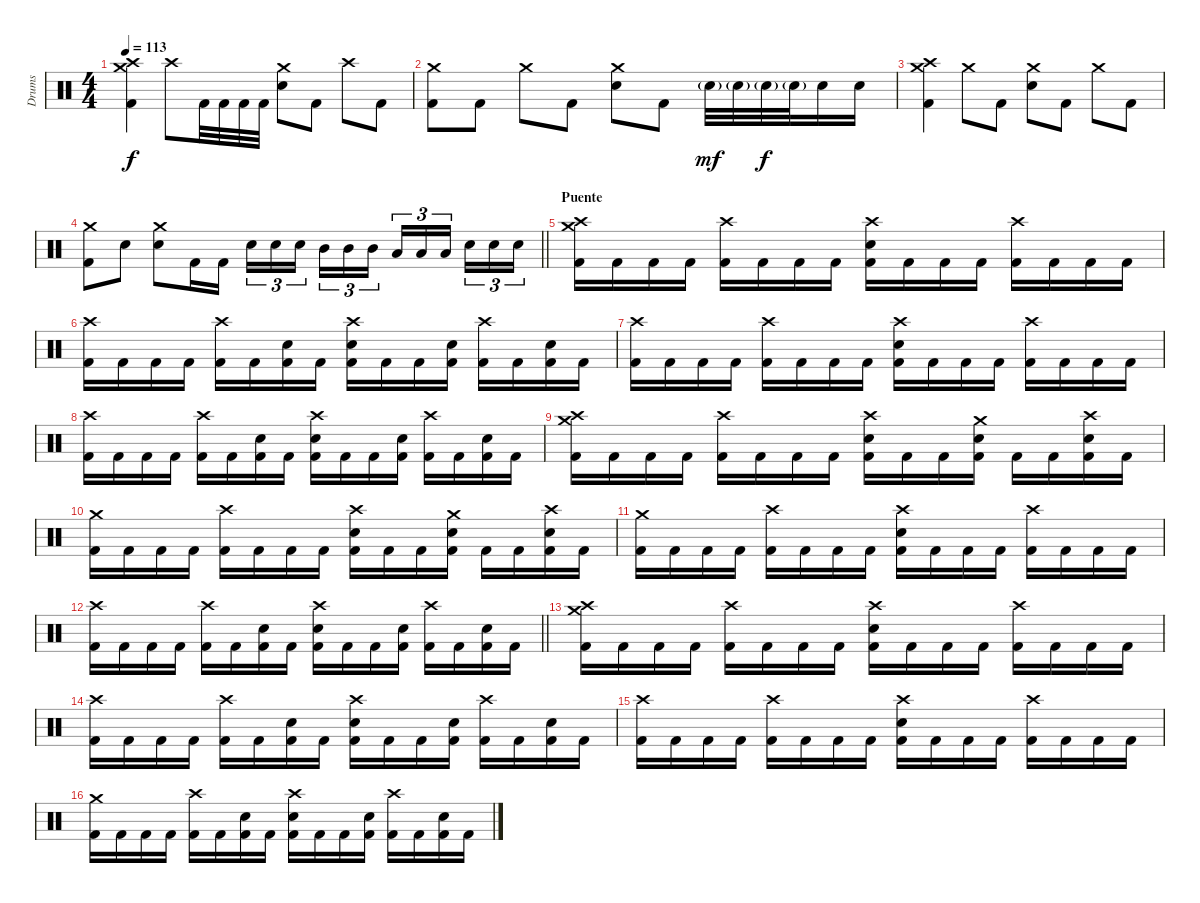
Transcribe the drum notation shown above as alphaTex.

\track ("Drums" "Drums") {instrument percussion}
\staff {score}
\articulation defaults
\ts (4 4)
\tempo 113
\clef neutral
\ks c
("Crash medium (hit)" "Crash high (hit)" "Kick (hit) 2").4{dy f} "Crash high (hit)".8 "Kick (hit) 2".32 "Kick (hit) 2".32 "Kick (hit) 2".32 "Kick (hit) 2".32 ("Crash medium (hit)" "Electric Snare (hit)").8 "Kick (hit) 2".8 "Crash high (hit)".8 "Kick (hit) 2".8 |
("Crash medium (hit)" "Kick (hit) 2").8 "Kick (hit) 2".8 "Crash medium (hit)".8 "Kick (hit) 2".8 ("Crash medium (hit)" "Electric Snare (hit)").8 "Kick (hit) 2".8 "Electric Snare (hit)"{g}.32{dy mf} "Electric Snare (hit)"{g}.32 "Electric Snare (hit)"{g}.32{dy f} "Electric Snare (hit)"{g}.32 "Electric Snare (hit)".16 "Electric Snare (hit)".16 |
("Crash medium (hit)" "Crash high (hit)" "Kick (hit) 2").4 "Crash medium (hit)".8 "Kick (hit) 2".8 ("Crash medium (hit)" "Electric Snare (hit)").8 "Kick (hit) 2".8 "Crash medium (hit)".8 "Kick (hit) 2".8 |
\barLineRight lightlight
("Crash medium (hit)" "Kick (hit) 2").8 "Electric Snare (hit)".8 ("Crash medium (hit)" "Electric Snare (hit)").8 "Kick (hit) 2".16 "Kick (hit) 2".16 "Electric Snare (hit)".16{tu (3 2)} "Electric Snare (hit)".16{tu (3 2)} "Electric Snare (hit)".16{tu (3 2) beam splitsecondary} "Mid Tom (hit)".16{tu (3 2)} "Mid Tom (hit)".16{tu (3 2)} "Mid Tom (hit)".16{tu (3 2)} "Low Tom (hit)".16{tu (3 2)} "Low Tom (hit)".16{tu (3 2)} "Low Tom (hit)".16{tu (3 2) beam splitsecondary} "Electric Snare (hit)".16{tu (3 2)} "Electric Snare (hit)".16{tu (3 2)} "Electric Snare (hit)".16{tu (3 2)} |
\section ("" "Puente")
("Crash medium (hit)" "Crash high (hit)" "Kick (hit) 2").16 "Kick (hit) 2".16 "Kick (hit) 2".16 "Kick (hit) 2".16 ("Crash high (hit)" "Kick (hit) 2").16 "Kick (hit) 2".16 "Kick (hit) 2".16 "Kick (hit) 2".16 ("Crash high (hit)" "Electric Snare (hit)" "Kick (hit) 2").16 "Kick (hit) 2".16 "Kick (hit) 2".16 "Kick (hit) 2".16 ("Crash high (hit)" "Kick (hit) 2").16 "Kick (hit) 2".16 "Kick (hit) 2".16 "Kick (hit) 2".16 |
("Crash high (hit)" "Kick (hit) 2").16 "Kick (hit) 2".16 "Kick (hit) 2".16 "Kick (hit) 2".16 ("Crash high (hit)" "Kick (hit) 2").16 "Kick (hit) 2".16 ("Electric Snare (hit)" "Kick (hit) 2").16 "Kick (hit) 2".16 ("Crash high (hit)" "Electric Snare (hit)" "Kick (hit) 2").16 "Kick (hit) 2".16 "Kick (hit) 2".16 ("Electric Snare (hit)" "Kick (hit) 2").16 ("Crash high (hit)" "Kick (hit) 2").16 "Kick (hit) 2".16 ("Electric Snare (hit)" "Kick (hit) 2").16 "Kick (hit) 2".16 |
("Crash high (hit)" "Kick (hit) 2").16 "Kick (hit) 2".16 "Kick (hit) 2".16 "Kick (hit) 2".16 ("Crash high (hit)" "Kick (hit) 2").16 "Kick (hit) 2".16 "Kick (hit) 2".16 "Kick (hit) 2".16 ("Crash high (hit)" "Electric Snare (hit)" "Kick (hit) 2").16 "Kick (hit) 2".16 "Kick (hit) 2".16 "Kick (hit) 2".16 ("Crash high (hit)" "Kick (hit) 2").16 "Kick (hit) 2".16 "Kick (hit) 2".16 "Kick (hit) 2".16 |
("Crash high (hit)" "Kick (hit) 2").16 "Kick (hit) 2".16 "Kick (hit) 2".16 "Kick (hit) 2".16 ("Crash high (hit)" "Kick (hit) 2").16 "Kick (hit) 2".16 ("Electric Snare (hit)" "Kick (hit) 2").16 "Kick (hit) 2".16 ("Crash high (hit)" "Electric Snare (hit)" "Kick (hit) 2").16 "Kick (hit) 2".16 "Kick (hit) 2".16 ("Electric Snare (hit)" "Kick (hit) 2").16 ("Crash high (hit)" "Kick (hit) 2").16 "Kick (hit) 2".16 ("Electric Snare (hit)" "Kick (hit) 2").16 "Kick (hit) 2".16 |
("Crash medium (hit)" "Crash high (hit)" "Kick (hit) 2").16 "Kick (hit) 2".16 "Kick (hit) 2".16 "Kick (hit) 2".16 ("Crash high (hit)" "Kick (hit) 2").16 "Kick (hit) 2".16 "Kick (hit) 2".16 "Kick (hit) 2".16 ("Crash high (hit)" "Electric Snare (hit)" "Kick (hit) 2").16 "Kick (hit) 2".16 "Kick (hit) 2".16 ("Crash medium (hit)" "Electric Snare (hit)" "Kick (hit) 2").16 "Kick (hit) 2".16 "Kick (hit) 2".16 ("Crash high (hit)" "Electric Snare (hit)" "Kick (hit) 2").16 "Kick (hit) 2".16 |
("Crash medium (hit)" "Kick (hit) 2").16 "Kick (hit) 2".16 "Kick (hit) 2".16 "Kick (hit) 2".16 ("Crash high (hit)" "Kick (hit) 2").16 "Kick (hit) 2".16 "Kick (hit) 2".16 "Kick (hit) 2".16 ("Crash high (hit)" "Electric Snare (hit)" "Kick (hit) 2").16 "Kick (hit) 2".16 "Kick (hit) 2".16 ("Crash medium (hit)" "Electric Snare (hit)" "Kick (hit) 2").16 "Kick (hit) 2".16 "Kick (hit) 2".16 ("Crash high (hit)" "Electric Snare (hit)" "Kick (hit) 2").16 "Kick (hit) 2".16 |
("Crash medium (hit)" "Kick (hit) 2").16 "Kick (hit) 2".16 "Kick (hit) 2".16 "Kick (hit) 2".16 ("Crash high (hit)" "Kick (hit) 2").16 "Kick (hit) 2".16 "Kick (hit) 2".16 "Kick (hit) 2".16 ("Crash high (hit)" "Electric Snare (hit)" "Kick (hit) 2").16 "Kick (hit) 2".16 "Kick (hit) 2".16 "Kick (hit) 2".16 ("Crash high (hit)" "Kick (hit) 2").16 "Kick (hit) 2".16 "Kick (hit) 2".16 "Kick (hit) 2".16 |
\barLineRight lightlight
("Crash high (hit)" "Kick (hit) 2").16 "Kick (hit) 2".16 "Kick (hit) 2".16 "Kick (hit) 2".16 ("Crash high (hit)" "Kick (hit) 2").16 "Kick (hit) 2".16 ("Electric Snare (hit)" "Kick (hit) 2").16 "Kick (hit) 2".16 ("Crash high (hit)" "Electric Snare (hit)" "Kick (hit) 2").16 "Kick (hit) 2".16 "Kick (hit) 2".16 ("Electric Snare (hit)" "Kick (hit) 2").16 ("Crash high (hit)" "Kick (hit) 2").16 "Kick (hit) 2".16 ("Electric Snare (hit)" "Kick (hit) 2").16 "Kick (hit) 2".16 |
\section ("" "")
("Crash medium (hit)" "Crash high (hit)" "Kick (hit) 2").16 "Kick (hit) 2".16 "Kick (hit) 2".16 "Kick (hit) 2".16 ("Crash high (hit)" "Kick (hit) 2").16 "Kick (hit) 2".16 "Kick (hit) 2".16 "Kick (hit) 2".16 ("Crash high (hit)" "Electric Snare (hit)" "Kick (hit) 2").16 "Kick (hit) 2".16 "Kick (hit) 2".16 "Kick (hit) 2".16 ("Crash high (hit)" "Kick (hit) 2").16 "Kick (hit) 2".16 "Kick (hit) 2".16 "Kick (hit) 2".16 |
("Crash high (hit)" "Kick (hit) 2").16 "Kick (hit) 2".16 "Kick (hit) 2".16 "Kick (hit) 2".16 ("Crash high (hit)" "Kick (hit) 2").16 "Kick (hit) 2".16 ("Electric Snare (hit)" "Kick (hit) 2").16 "Kick (hit) 2".16 ("Crash high (hit)" "Electric Snare (hit)" "Kick (hit) 2").16 "Kick (hit) 2".16 "Kick (hit) 2".16 ("Electric Snare (hit)" "Kick (hit) 2").16 ("Crash high (hit)" "Kick (hit) 2").16 "Kick (hit) 2".16 ("Electric Snare (hit)" "Kick (hit) 2").16 "Kick (hit) 2".16 |
("Crash high (hit)" "Kick (hit) 2").16 "Kick (hit) 2".16 "Kick (hit) 2".16 "Kick (hit) 2".16 ("Crash high (hit)" "Kick (hit) 2").16 "Kick (hit) 2".16 "Kick (hit) 2".16 "Kick (hit) 2".16 ("Crash high (hit)" "Electric Snare (hit)" "Kick (hit) 2").16 "Kick (hit) 2".16 "Kick (hit) 2".16 "Kick (hit) 2".16 ("Crash high (hit)" "Kick (hit) 2").16 "Kick (hit) 2".16 "Kick (hit) 2".16 "Kick (hit) 2".16 |
("Crash medium (hit)" "Kick (hit) 2").16 "Kick (hit) 2".16 "Kick (hit) 2".16 "Kick (hit) 2".16 ("Crash high (hit)" "Kick (hit) 2").16 "Kick (hit) 2".16 ("Electric Snare (hit)" "Kick (hit) 2").16 "Kick (hit) 2".16 ("Crash high (hit)" "Electric Snare (hit)" "Kick (hit) 2").16 "Kick (hit) 2".16 "Kick (hit) 2".16 ("Electric Snare (hit)" "Kick (hit) 2").16 ("Crash high (hit)" "Kick (hit) 2").16 "Kick (hit) 2".16 ("Electric Snare (hit)" "Kick (hit) 2").16 "Kick (hit) 2".16
